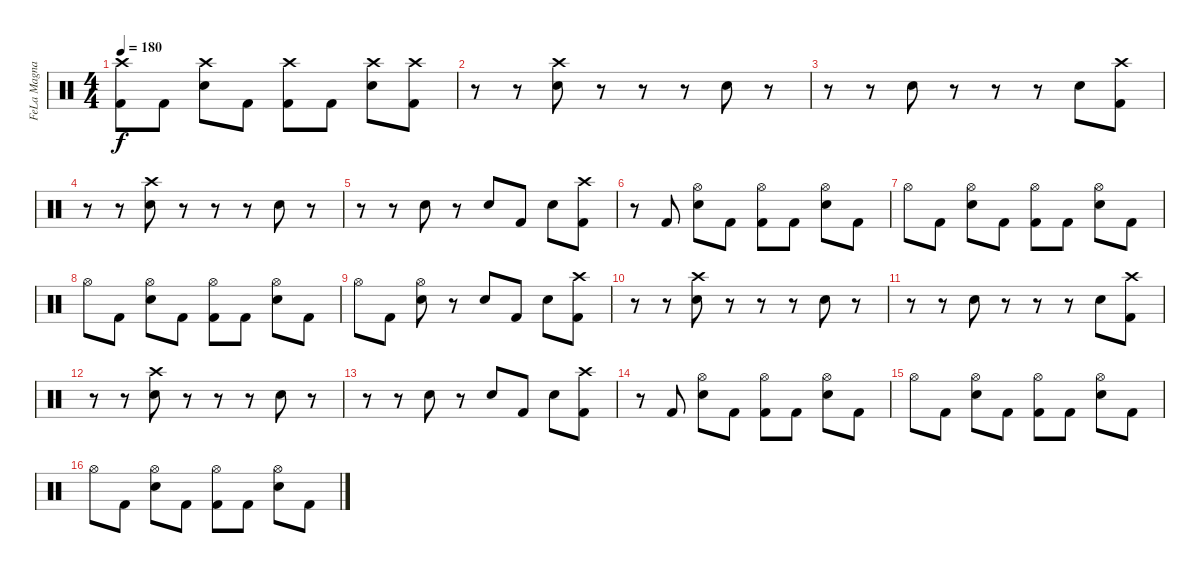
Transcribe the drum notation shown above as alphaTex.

\track ("FeLa Magnani" "FeLa Magna") {instrument percussion}
\staff {score}
\articulation defaults
\ts (4 4)
\tempo 180
\clef neutral
\ks c
("Crash high (hit)" "Kick (hit) 2").8{dy f} "Kick (hit) 2".8 ("Crash high (hit)" "Electric Snare (hit)").8 "Kick (hit) 2".8 ("Crash high (hit)" "Kick (hit) 2").8 "Kick (hit) 2".8 ("Crash high (hit)" "Electric Snare (hit)").8 ("Crash high (hit)" "Kick (hit) 2").8 |
r.8 r.8 ("Crash high (hit)" "Electric Snare (hit)").8 r.8 r.8 r.8 "Electric Snare (hit)".8 r.8 |
r.8 r.8 "Electric Snare (hit)".8 r.8 r.8 r.8 "Electric Snare (hit)".8 ("Crash high (hit)" "Kick (hit) 2").8 |
r.8 r.8 ("Crash high (hit)" "Electric Snare (hit)").8 r.8 r.8 r.8 "Electric Snare (hit)".8 r.8 |
r.8 r.8 "Electric Snare (hit)".8 r.8 "Electric Snare (hit)".8 "Kick (hit) 2".8 "Electric Snare (hit)".8 ("Crash high (hit)" "Kick (hit) 2").8 |
r.8 "Kick (hit) 2".8 ("Hi-Hat (open)" "Electric Snare (hit)").8 "Kick (hit) 2".8 ("Hi-Hat (open)" "Kick (hit) 2").8 "Kick (hit) 2".8 ("Hi-Hat (open)" "Electric Snare (hit)").8 "Kick (hit) 2".8 |
"Hi-Hat (open)".8 "Kick (hit) 2".8 ("Hi-Hat (open)" "Electric Snare (hit)").8 "Kick (hit) 2".8 ("Hi-Hat (open)" "Kick (hit) 2").8 "Kick (hit) 2".8 ("Hi-Hat (open)" "Electric Snare (hit)").8 "Kick (hit) 2".8 |
"Hi-Hat (open)".8 "Kick (hit) 2".8 ("Hi-Hat (open)" "Electric Snare (hit)").8 "Kick (hit) 2".8 ("Hi-Hat (open)" "Kick (hit) 2").8 "Kick (hit) 2".8 ("Hi-Hat (open)" "Electric Snare (hit)").8 "Kick (hit) 2".8 |
"Hi-Hat (open)".8 "Kick (hit) 2".8 ("Hi-Hat (open)" "Electric Snare (hit)").8 r.8 "Electric Snare (hit)".8 "Kick (hit) 2".8 "Electric Snare (hit)".8 ("Crash high (hit)" "Kick (hit) 2").8 |
r.8 r.8 ("Crash high (hit)" "Electric Snare (hit)").8 r.8 r.8 r.8 "Electric Snare (hit)".8 r.8 |
r.8 r.8 "Electric Snare (hit)".8 r.8 r.8 r.8 "Electric Snare (hit)".8 ("Crash high (hit)" "Kick (hit) 2").8 |
r.8 r.8 ("Crash high (hit)" "Electric Snare (hit)").8 r.8 r.8 r.8 "Electric Snare (hit)".8 r.8 |
r.8 r.8 "Electric Snare (hit)".8 r.8 "Electric Snare (hit)".8 "Kick (hit) 2".8 "Electric Snare (hit)".8 ("Crash high (hit)" "Kick (hit) 2").8 |
r.8 "Kick (hit) 2".8 ("Hi-Hat (open)" "Electric Snare (hit)").8 "Kick (hit) 2".8 ("Hi-Hat (open)" "Kick (hit) 2").8 "Kick (hit) 2".8 ("Hi-Hat (open)" "Electric Snare (hit)").8 "Kick (hit) 2".8 |
"Hi-Hat (open)".8 "Kick (hit) 2".8 ("Hi-Hat (open)" "Electric Snare (hit)").8 "Kick (hit) 2".8 ("Hi-Hat (open)" "Kick (hit) 2").8 "Kick (hit) 2".8 ("Hi-Hat (open)" "Electric Snare (hit)").8 "Kick (hit) 2".8 |
"Hi-Hat (open)".8 "Kick (hit) 2".8 ("Hi-Hat (open)" "Electric Snare (hit)").8 "Kick (hit) 2".8 ("Hi-Hat (open)" "Kick (hit) 2").8 "Kick (hit) 2".8 ("Hi-Hat (open)" "Electric Snare (hit)").8 "Kick (hit) 2".8
